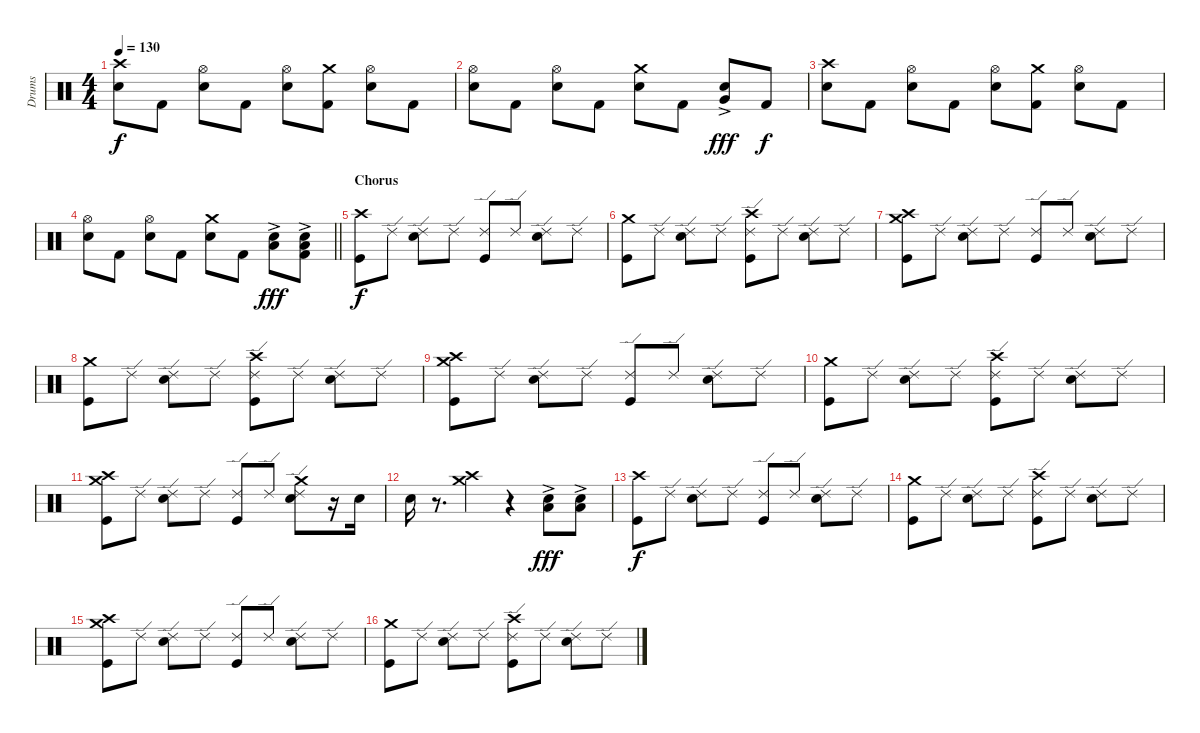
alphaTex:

\track ("Drums" "Drums") {instrument percussion}
\staff {score}
\articulation defaults
\ts (4 4)
\tempo 130
\clef neutral
\ks c
("Crash high (hit)" "Snare (hit) 2").8{dy f} "Kick (hit) 2".8 ("Hi-Hat (open)" "Snare (hit) 2").8 "Kick (hit) 2".8 ("Hi-Hat (open)" "Snare (hit) 2").8 ("Crash medium (hit)" "Kick (hit) 2").8 ("Hi-Hat (open)" "Snare (hit) 2").8 "Kick (hit) 2".8 |
("Hi-Hat (open)" "Snare (hit) 2").8 "Kick (hit) 2".8 ("Hi-Hat (open)" "Snare (hit) 2").8 "Kick (hit) 2".8 ("Crash medium (hit)" "Snare (hit) 2").8 "Kick (hit) 2".8 ("Very Low Tom (hit)"{ac} "Snare (hit) 2").8{dy fff} "Kick (hit) 2".8{dy f} |
("Crash high (hit)" "Snare (hit) 2").8 "Kick (hit) 2".8 ("Hi-Hat (open)" "Snare (hit) 2").8 "Kick (hit) 2".8 ("Hi-Hat (open)" "Snare (hit) 2").8 ("Crash medium (hit)" "Kick (hit) 2").8 ("Hi-Hat (open)" "Snare (hit) 2").8 "Kick (hit) 2".8 |
\barLineRight lightlight
("Hi-Hat (open)" "Snare (hit) 2").8 "Kick (hit) 2".8 ("Hi-Hat (open)" "Snare (hit) 2").8 "Kick (hit) 2".8 ("Crash medium (hit)" "Snare (hit) 2").8 "Kick (hit) 2".8 ("Low Floor Tom (hit)"{ac} "Snare (hit) 2").8{dy fff} ("Low Floor Tom (hit)"{ac} "Snare (hit) 2" "Kick (hit) 2").8 |
\section ("" "Chorus")
("Crash high (hit)" "Kick (hit)").8{dy f} "Ride (edge) 2".8 ("Ride (edge) 2" "Snare (hit) 2").8 "Ride (edge) 2".8 ("Ride (edge) 2" "Kick (hit)").8 "Ride (edge) 2".8 ("Ride (edge) 2" "Snare (hit) 2").8 "Ride (edge) 2".8 |
("Crash medium (hit)" "Kick (hit)").8 "Ride (edge) 2".8 ("Ride (edge) 2" "Snare (hit) 2").8 "Ride (edge) 2".8 ("Crash high (hit)" "Ride (edge) 2" "Kick (hit)").8 "Ride (edge) 2".8 ("Ride (edge) 2" "Snare (hit) 2").8 "Ride (edge) 2".8 |
("Crash high (hit)" "Crash medium (hit)" "Kick (hit)").8 "Ride (edge) 2".8 ("Ride (edge) 2" "Snare (hit) 2").8 "Ride (edge) 2".8 ("Ride (edge) 2" "Kick (hit)").8 "Ride (edge) 2".8 ("Ride (edge) 2" "Snare (hit) 2").8 "Ride (edge) 2".8 |
("Crash medium (hit)" "Kick (hit)").8 "Ride (edge) 2".8 ("Ride (edge) 2" "Snare (hit) 2").8 "Ride (edge) 2".8 ("Crash high (hit)" "Ride (edge) 2" "Kick (hit)").8 "Ride (edge) 2".8 ("Ride (edge) 2" "Snare (hit) 2").8 "Ride (edge) 2".8 |
("Crash high (hit)" "Crash medium (hit)" "Kick (hit)").8 "Ride (edge) 2".8 ("Ride (edge) 2" "Snare (hit) 2").8 "Ride (edge) 2".8 ("Ride (edge) 2" "Kick (hit)").8 "Ride (edge) 2".8 ("Ride (edge) 2" "Snare (hit) 2").8 "Ride (edge) 2".8 |
("Crash medium (hit)" "Kick (hit)").8 "Ride (edge) 2".8 ("Ride (edge) 2" "Snare (hit) 2").8 "Ride (edge) 2".8 ("Crash high (hit)" "Ride (edge) 2" "Kick (hit)").8 "Ride (edge) 2".8 ("Ride (edge) 2" "Snare (hit) 2").8 "Ride (edge) 2".8 |
("Crash high (hit)" "Crash medium (hit)" "Kick (hit)").8 "Ride (edge) 2".8 ("Ride (edge) 2" "Snare (hit) 2").8 "Ride (edge) 2".8 ("Ride (edge) 2" "Kick (hit)").8 "Ride (edge) 2".8 ("Crash medium (hit)" "Ride (edge) 2" "Snare (hit) 2").8 r.16 "Snare (hit) 2".16 |
"Snare (hit) 2".16 r.8{d} ("Crash high (hit)" "Crash medium (hit)").4 r.4 ("Low Floor Tom (hit)"{ac} "Snare (hit) 2").8{dy fff} ("Low Floor Tom (hit)"{ac} "Snare (hit) 2").8 |
("Crash high (hit)" "Kick (hit)").8{dy f} "Ride (edge) 2".8 ("Ride (edge) 2" "Snare (hit) 2").8 "Ride (edge) 2".8 ("Ride (edge) 2" "Kick (hit)").8 "Ride (edge) 2".8 ("Ride (edge) 2" "Snare (hit) 2").8 "Ride (edge) 2".8 |
("Crash medium (hit)" "Kick (hit)").8 "Ride (edge) 2".8 ("Ride (edge) 2" "Snare (hit) 2").8 "Ride (edge) 2".8 ("Crash high (hit)" "Ride (edge) 2" "Kick (hit)").8 "Ride (edge) 2".8 ("Ride (edge) 2" "Snare (hit) 2").8 "Ride (edge) 2".8 |
("Crash high (hit)" "Crash medium (hit)" "Kick (hit)").8 "Ride (edge) 2".8 ("Ride (edge) 2" "Snare (hit) 2").8 "Ride (edge) 2".8 ("Ride (edge) 2" "Kick (hit)").8 "Ride (edge) 2".8 ("Ride (edge) 2" "Snare (hit) 2").8 "Ride (edge) 2".8 |
("Crash medium (hit)" "Kick (hit)").8 "Ride (edge) 2".8 ("Ride (edge) 2" "Snare (hit) 2").8 "Ride (edge) 2".8 ("Crash high (hit)" "Ride (edge) 2" "Kick (hit)").8 "Ride (edge) 2".8 ("Ride (edge) 2" "Snare (hit) 2").8 "Ride (edge) 2".8
